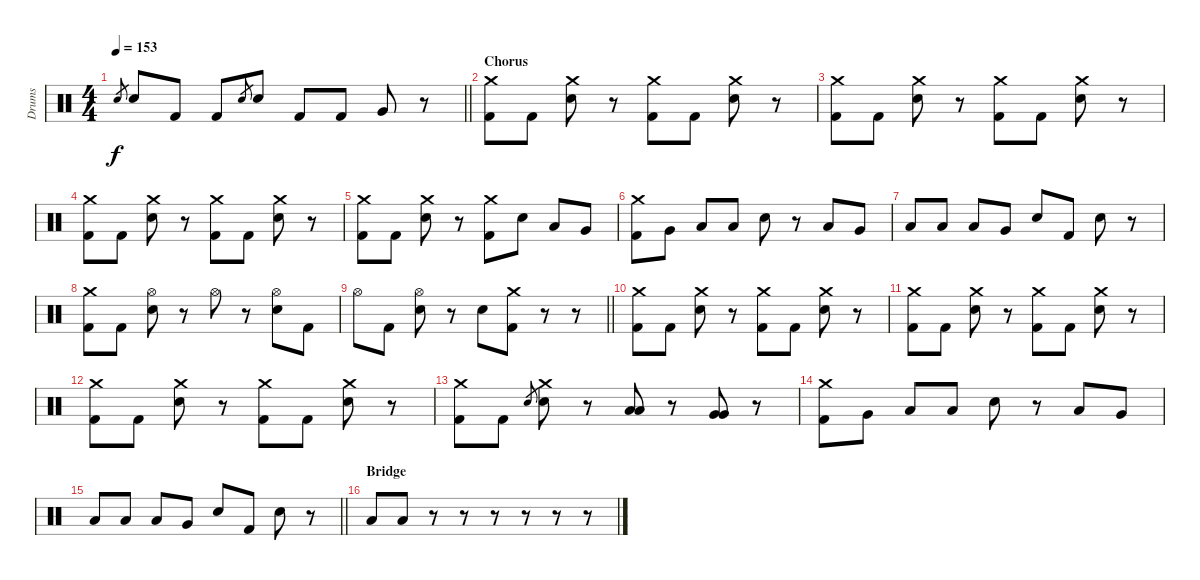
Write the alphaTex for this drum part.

\track ("Drums" "Drums") {instrument percussion}
\staff {score}
\articulation defaults
\ts (4 4)
\tempo 153
\clef neutral
\barLineRight lightlight
\ks c "Electric Snare (hit)".8{gr dy f} "Electric Snare (hit)".8 "Kick (hit) 2".8 "Kick (hit) 2".8 "Electric Snare (hit)".8{gr} "Electric Snare (hit)".8 "Kick (hit) 2".8 "Kick (hit) 2".8 "Very Low Tom (hit)".8
r.8 |
\section ("" "Chorus")
("Crash medium (hit)" "Kick (hit) 2").8 "Kick (hit) 2".8 ("Crash medium (hit)" "Electric Snare (hit)").8 r.8 ("Crash medium (hit)" "Kick (hit) 2").8 "Kick (hit) 2".8 ("Crash medium (hit)" "Electric Snare (hit)").8 r.8 |
("Crash medium (hit)" "Kick (hit) 2").8 "Kick (hit) 2".8 ("Crash medium (hit)" "Electric Snare (hit)").8 r.8 ("Crash medium (hit)" "Kick (hit) 2").8 "Kick (hit) 2".8 ("Crash medium (hit)" "Electric Snare (hit)").8 r.8 |
("Crash medium (hit)" "Kick (hit) 2").8 "Kick (hit) 2".8 ("Crash medium (hit)" "Electric Snare (hit)").8 r.8 ("Crash medium (hit)" "Kick (hit) 2").8 "Kick (hit) 2".8 ("Crash medium (hit)" "Electric Snare (hit)").8 r.8 |
("Crash medium (hit)" "Kick (hit) 2").8 "Kick (hit) 2".8 ("Crash medium (hit)" "Electric Snare (hit)").8 r.8 ("Crash medium (hit)" "Kick (hit) 2").8 "Electric Snare (hit)".8 "Low Tom (hit)".8 "Very Low Tom (hit)".8 |
("Crash medium (hit)" "Kick (hit) 2").8 "Very Low Tom (hit)".8 "Low Tom (hit)".8 "Low Tom (hit)".8 "Electric Snare (hit)".8 r.8 "Low Tom (hit)".8 "Very Low Tom (hit)".8 |
"Low Tom (hit)".8 "Low Tom (hit)".8 "Low Tom (hit)".8 "Very Low Tom (hit)".8 "Electric Snare (hit)".8 "Kick (hit) 2".8 "Electric Snare (hit)".8 r.8 |
("Crash medium (hit)" "Kick (hit) 2").8 "Kick (hit) 2".8 ("Hi-Hat (open)" "Electric Snare (hit)").8 r.8 "Hi-Hat (open)".8 r.8 ("Hi-Hat (open)" "Electric Snare (hit)").8 "Kick (hit) 2".8 |
\barLineRight lightlight "Hi-Hat (open)".8 "Kick (hit) 2".8
("Hi-Hat (open)" "Electric Snare (hit)").8 r.8 "Electric Snare (hit)".8 ("Crash medium (hit)" "Kick (hit) 2").8 r.8 r.8 |
("Crash medium (hit)" "Kick (hit) 2").8 "Kick (hit) 2".8 ("Crash medium (hit)" "Electric Snare (hit)").8 r.8 ("Crash medium (hit)" "Kick (hit) 2").8 "Kick (hit) 2".8 ("Crash medium (hit)" "Electric Snare (hit)").8 r.8 |
("Crash medium (hit)" "Kick (hit) 2").8 "Kick (hit) 2".8 ("Crash medium (hit)" "Electric Snare (hit)").8 r.8 ("Crash medium (hit)" "Kick (hit) 2").8 "Kick (hit) 2".8 ("Crash medium (hit)" "Electric Snare (hit)").8 r.8 |
("Crash medium (hit)" "Kick (hit) 2").8 "Kick (hit) 2".8 ("Crash medium (hit)" "Electric Snare (hit)").8 r.8 ("Crash medium (hit)" "Kick (hit) 2").8 "Kick (hit) 2".8 ("Crash medium (hit)" "Electric Snare (hit)").8 r.8 |
("Crash medium (hit)" "Kick (hit) 2").8 "Kick (hit) 2".8 "Electric Snare (hit)".8{gr} ("Crash medium (hit)" "Electric Snare (hit)").8 r.8 ("Low Tom (hit)" "Low Tom (hit)").8 r.8 ("Very Low Tom (hit)" "Very Low Tom (hit)").8 r.8 |
("Crash medium (hit)" "Kick (hit) 2").8 "Very Low Tom (hit)".8 "Low Tom (hit)".8 "Low Tom (hit)".8 "Electric Snare (hit)".8 r.8 "Low Tom (hit)".8 "Very Low Tom (hit)".8 |
\barLineRight lightlight "Low Tom (hit)".8 "Low Tom (hit)".8 "Low Tom (hit)".8 "Very Low Tom (hit)".8 "Electric Snare (hit)".8 "Kick (hit) 2".8 "Electric Snare (hit)".8
r.8 |
\section ("" "Bridge")
"Low Tom (hit)".8 "Low Tom (hit)".8 r.8 r.8 r.8 r.8 r.8 r.8
